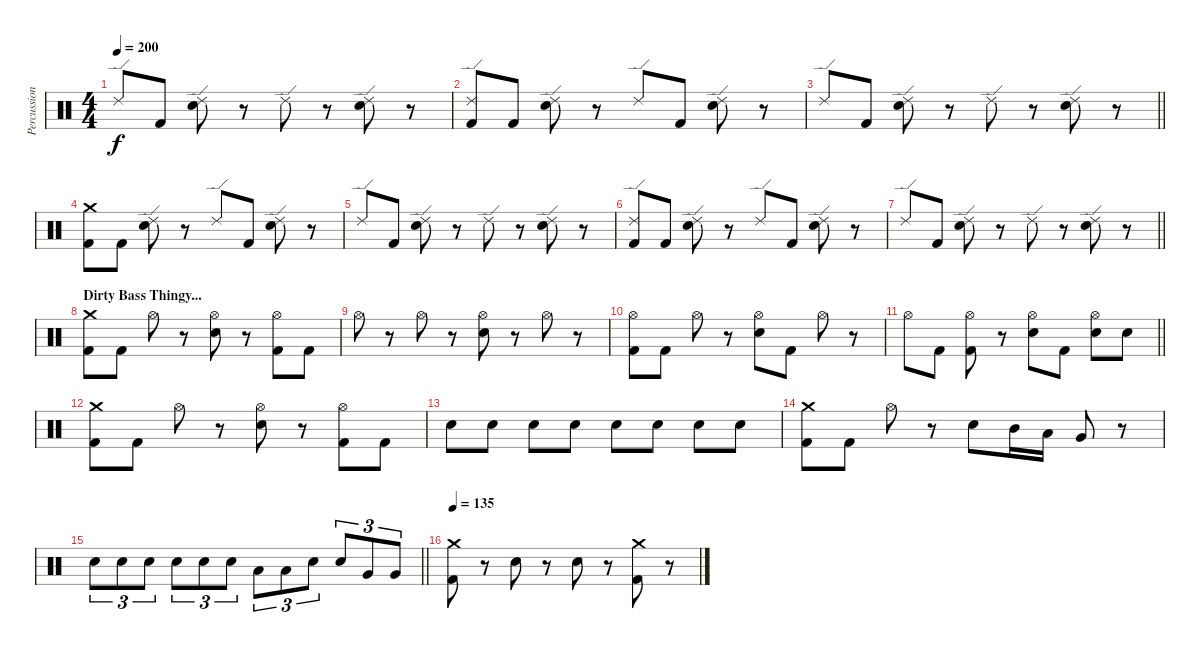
\track ("Percussion" "Percussion") {instrument percussion}
\staff {score}
\articulation defaults
\ts (4 4)
\tempo 200
\clef neutral
\ks c "Ride (edge) 2".8{dy f} "Kick (hit) 2".8
("Ride (edge) 2" "Electric Snare (hit)").8 r.8 "Ride (edge) 2".8 r.8 ("Ride (edge) 2" "Electric Snare (hit)").8 r.8 |
("Ride (edge) 2" "Kick (hit) 2").8 "Kick (hit) 2".8 ("Ride (edge) 2" "Electric Snare (hit)").8 r.8 "Ride (edge) 2".8 "Kick (hit) 2".8 ("Ride (edge) 2" "Electric Snare (hit)").8 r.8 |
\barLineRight lightlight "Ride (edge) 2".8 "Kick (hit) 2".8
("Ride (edge) 2" "Electric Snare (hit)").8 r.8 "Ride (edge) 2".8 r.8 ("Ride (edge) 2" "Electric Snare (hit)").8 r.8 |
("Crash medium (hit)" "Kick (hit) 2").8 "Kick (hit) 2".8 ("Ride (edge) 2" "Electric Snare (hit)").8 r.8 "Ride (edge) 2".8 "Kick (hit) 2".8 ("Ride (edge) 2" "Electric Snare (hit)").8 r.8 |
"Ride (edge) 2".8 "Kick (hit) 2".8 ("Ride (edge) 2" "Electric Snare (hit)").8 r.8 "Ride (edge) 2".8 r.8 ("Ride (edge) 2" "Electric Snare (hit)").8 r.8 |
("Ride (edge) 2" "Kick (hit) 2").8 "Kick (hit) 2".8 ("Ride (edge) 2" "Electric Snare (hit)").8 r.8 "Ride (edge) 2".8 "Kick (hit) 2".8 ("Ride (edge) 2" "Electric Snare (hit)").8 r.8 |
\barLineRight lightlight "Ride (edge) 2".8 "Kick (hit) 2".8
("Ride (edge) 2" "Electric Snare (hit)").8 r.8 "Ride (edge) 2".8 r.8 ("Ride (edge) 2" "Electric Snare (hit)").8 r.8 |
\section ("" "Dirty Bass Thingy...")
("Crash medium (hit)" "Kick (hit) 2").8 "Kick (hit) 2".8 "Hi-Hat (open)".8 r.8 ("Hi-Hat (open)" "Electric Snare (hit)").8 r.8 ("Hi-Hat (open)" "Kick (hit) 2").8 "Kick (hit) 2".8 |
"Hi-Hat (open)".8 r.8 "Hi-Hat (open)".8 r.8 ("Hi-Hat (open)" "Electric Snare (hit)").8 r.8 "Hi-Hat (open)".8 r.8 |
("Hi-Hat (open)" "Kick (hit) 2").8 "Kick (hit) 2".8 "Hi-Hat (open)".8 r.8 ("Hi-Hat (open)" "Electric Snare (hit)").8 "Kick (hit) 2".8 "Hi-Hat (open)".8 r.8 |
\barLineRight lightlight "Hi-Hat (open)".8 "Kick (hit) 2".8
("Hi-Hat (open)" "Kick (hit) 2").8 r.8 ("Hi-Hat (open)" "Electric Snare (hit)").8 "Kick (hit) 2".8 ("Hi-Hat (open)" "Electric Snare (hit)").8 "Electric Snare (hit)".8 |
("Crash medium (hit)" "Kick (hit) 2").8 "Kick (hit) 2".8 "Hi-Hat (open)".8 r.8 ("Hi-Hat (open)" "Electric Snare (hit)").8 r.8 ("Hi-Hat (open)" "Kick (hit) 2").8 "Kick (hit) 2".8 |
"Electric Snare (hit)".8 "Electric Snare (hit)".8 "Electric Snare (hit)".8 "Electric Snare (hit)".8 "Electric Snare (hit)".8 "Electric Snare (hit)".8 "Electric Snare (hit)".8 "Electric Snare (hit)".8 |
("Crash medium (hit)" "Kick (hit) 2").8 "Kick (hit) 2".8 "Hi-Hat (open)".8 r.8 "Electric Snare (hit)".8 "Mid Tom (hit)".16 "Low Tom (hit)".16 "Very Low Tom (hit)".8 r.8 |
\barLineRight lightlight "Electric Snare (hit)".8{tu (3 2)} "Electric Snare (hit)".8{tu (3 2)} "Electric Snare (hit)".8{tu (3 2)} "Electric Snare (hit)".8{tu (3 2)} "Electric Snare (hit)".8{tu (3 2)} "Electric Snare (hit)".8{tu (3 2)} "Low Tom (hit)".8{tu (3 2)} "Low Tom (hit)".8{tu (3 2)} "Electric Snare (hit)".8{tu (3 2)} "Electric Snare (hit)".8{tu (3 2)} "Very Low Tom (hit)".8{tu (3 2)} "Very Low Tom (hit)".8{tu (3 2)}
|
\tempo 135
("Crash medium (hit)" "Kick (hit) 2").8 r.8 "Electric Snare (hit)".8 r.8 "Electric Snare (hit)".8 r.8 ("Crash medium (hit)" "Kick (hit) 2").8 r.8
